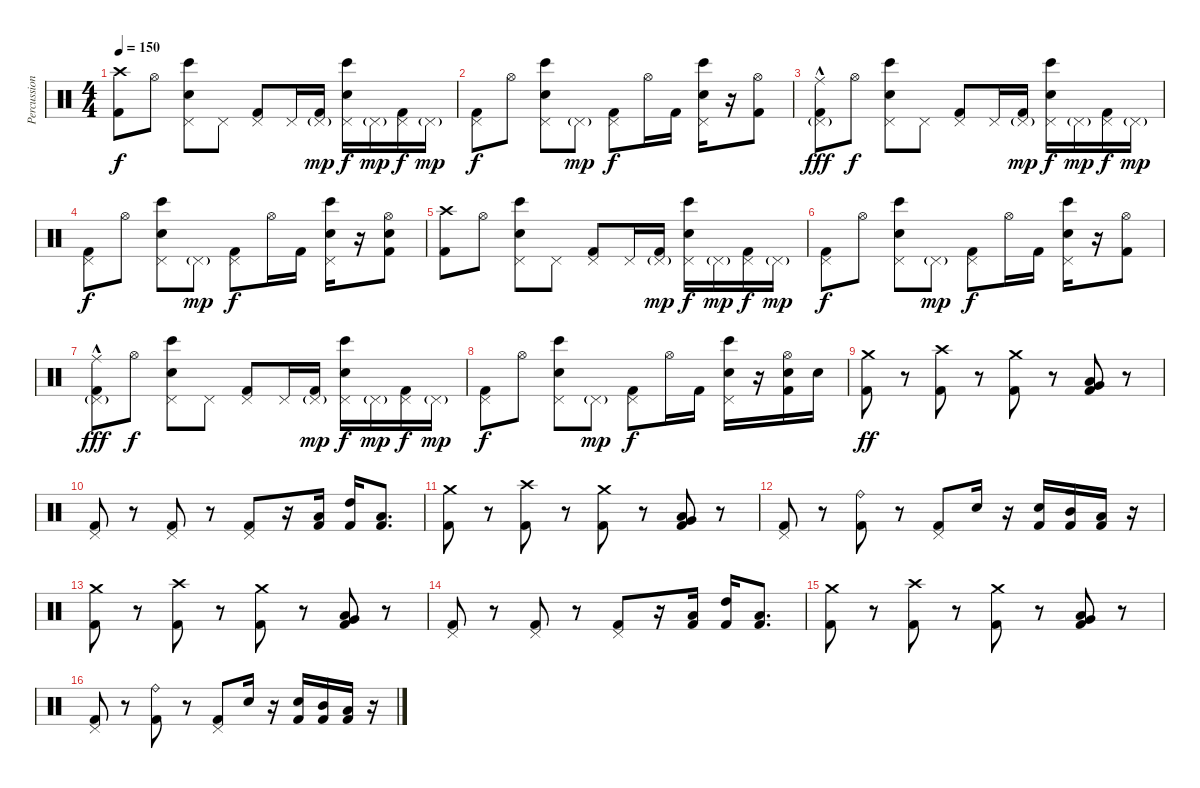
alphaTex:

\track ("Percussion" "Percussion") {instrument percussion}
\staff {score}
\articulation defaults
\ts (4 4)
\tempo 150
\clef neutral
\ks c
("Crash high (hit)" "Kick (hit) 2").8{dy f} "Hi-Hat (open)".8 ("Pedal Hi-Hat (hit)" "Electric Snare (hit)" "Bongo High (hit)").8 "Pedal Hi-Hat (hit)".8 ("Pedal Hi-Hat (hit)" "Kick (hit) 2").8 "Pedal Hi-Hat (hit)".16 ("Pedal Hi-Hat (hit)"{g} "Kick (hit) 2").16{dy mp} ("Pedal Hi-Hat (hit)" "Electric Snare (hit)" "Bongo High (hit)").16{dy f} "Pedal Hi-Hat (hit)"{g}.16{dy mp} ("Pedal Hi-Hat (hit)" "Kick (hit) 2").16{dy f} "Pedal Hi-Hat (hit)"{g}.16{dy mp} |
("Pedal Hi-Hat (hit)" "Kick (hit) 2").8{dy f} "Hi-Hat (open)".8 ("Pedal Hi-Hat (hit)" "Electric Snare (hit)" "Bongo High (hit)").8 "Pedal Hi-Hat (hit)"{g}.8{dy mp} ("Pedal Hi-Hat (hit)" "Kick (hit) 2").8{dy f} "Hi-Hat (open)".16 "Kick (hit) 2".16 ("Pedal Hi-Hat (hit)" "Electric Snare (hit)" "Bongo High (hit)").16 r.16 ("Hi-Hat (open)" "Kick (hit) 2").8 |
("Ride (middle)" "Pedal Hi-Hat (hit)"{g} "Kick (hit) 2"{hac}).8{dy fff} "Hi-Hat (open)".8{dy f} ("Pedal Hi-Hat (hit)" "Electric Snare (hit)" "Bongo High (hit)").8 "Pedal Hi-Hat (hit)".8 ("Pedal Hi-Hat (hit)" "Kick (hit) 2").8 "Pedal Hi-Hat (hit)".16 ("Pedal Hi-Hat (hit)"{g} "Kick (hit) 2").16{dy mp} ("Pedal Hi-Hat (hit)" "Electric Snare (hit)" "Bongo High (hit)").16{dy f} "Pedal Hi-Hat (hit)"{g}.16{dy mp} ("Pedal Hi-Hat (hit)" "Kick (hit) 2").16{dy f} "Pedal Hi-Hat (hit)"{g}.16{dy mp} |
("Pedal Hi-Hat (hit)" "Kick (hit) 2").8{dy f} "Hi-Hat (open)".8 ("Pedal Hi-Hat (hit)" "Electric Snare (hit)" "Bongo High (hit)").8 "Pedal Hi-Hat (hit)"{g}.8{dy mp} ("Pedal Hi-Hat (hit)" "Kick (hit) 2").8{dy f} "Hi-Hat (open)".16 "Kick (hit) 2".16 ("Pedal Hi-Hat (hit)" "Electric Snare (hit)" "Bongo High (hit)").16 r.16 ("Hi-Hat (open)" "Electric Snare (hit)" "Kick (hit) 2").8 |
("Crash high (hit)" "Kick (hit) 2").8 "Hi-Hat (open)".8 ("Pedal Hi-Hat (hit)" "Electric Snare (hit)" "Bongo High (hit)").8 "Pedal Hi-Hat (hit)".8 ("Pedal Hi-Hat (hit)" "Kick (hit) 2").8 "Pedal Hi-Hat (hit)".16 ("Pedal Hi-Hat (hit)"{g} "Kick (hit) 2").16{dy mp} ("Pedal Hi-Hat (hit)" "Electric Snare (hit)" "Bongo High (hit)").16{dy f} "Pedal Hi-Hat (hit)"{g}.16{dy mp} ("Pedal Hi-Hat (hit)" "Kick (hit) 2").16{dy f} "Pedal Hi-Hat (hit)"{g}.16{dy mp} |
("Pedal Hi-Hat (hit)" "Kick (hit) 2").8{dy f} "Hi-Hat (open)".8 ("Pedal Hi-Hat (hit)" "Electric Snare (hit)" "Bongo High (hit)").8 "Pedal Hi-Hat (hit)"{g}.8{dy mp} ("Pedal Hi-Hat (hit)" "Kick (hit) 2").8{dy f} "Hi-Hat (open)".16 "Kick (hit) 2".16 ("Pedal Hi-Hat (hit)" "Electric Snare (hit)" "Bongo High (hit)").16 r.16 ("Hi-Hat (open)" "Kick (hit) 2").8 |
("Ride (middle)" "Pedal Hi-Hat (hit)"{g} "Kick (hit) 2"{hac}).8{dy fff} "Hi-Hat (open)".8{dy f} ("Pedal Hi-Hat (hit)" "Electric Snare (hit)" "Bongo High (hit)").8 "Pedal Hi-Hat (hit)".8 ("Pedal Hi-Hat (hit)" "Kick (hit) 2").8 "Pedal Hi-Hat (hit)".16 ("Pedal Hi-Hat (hit)"{g} "Kick (hit) 2").16{dy mp} ("Pedal Hi-Hat (hit)" "Electric Snare (hit)" "Bongo High (hit)").16{dy f} "Pedal Hi-Hat (hit)"{g}.16{dy mp} ("Pedal Hi-Hat (hit)" "Kick (hit) 2").16{dy f} "Pedal Hi-Hat (hit)"{g}.16{dy mp} |
("Pedal Hi-Hat (hit)" "Kick (hit) 2").8{dy f} "Hi-Hat (open)".8 ("Pedal Hi-Hat (hit)" "Electric Snare (hit)" "Bongo High (hit)").8 "Pedal Hi-Hat (hit)"{g}.8{dy mp} ("Pedal Hi-Hat (hit)" "Kick (hit) 2").8{dy f} "Hi-Hat (open)".16 "Kick (hit) 2".16 ("Pedal Hi-Hat (hit)" "Electric Snare (hit)" "Bongo High (hit)").16 r.16 ("Hi-Hat (open)" "Kick (hit) 2" "Electric Snare (hit)").16 "Electric Snare (hit)".16 |
("Crash medium (hit)" "Kick (hit) 2").8{dy ff} r.8 ("Crash high (hit)" "Kick (hit) 2").8 r.8 ("Crash medium (hit)" "Kick (hit) 2").8 r.8 ("Very Low Tom (hit)" "Low Tom (hit)" "Kick (hit) 2").8{bd 60} r.8 |
("Pedal Hi-Hat (hit)" "Kick (hit) 2").8 r.8 ("Pedal Hi-Hat (hit)" "Kick (hit) 2").8 r.8 ("Pedal Hi-Hat (hit)" "Kick (hit) 2").8 r.16 ("Low Tom (hit)" "Kick (hit) 2").16 ("High Tom (hit)" "Kick (hit) 2").16 ("Low Tom (hit)" "Kick (hit) 2").8{d} |
("Crash medium (hit)" "Kick (hit) 2").8 r.8 ("Crash high (hit)" "Kick (hit) 2").8 r.8 ("Crash medium (hit)" "Kick (hit) 2").8 r.8 ("Very Low Tom (hit)" "Low Tom (hit)" "Kick (hit) 2").8{bd 60} r.8 |
("Pedal Hi-Hat (hit)" "Kick (hit) 2").8 r.8 ("Ride (bell)" "Kick (hit) 2").8 r.8 ("Pedal Hi-Hat (hit)" "Kick (hit) 2").8 "Electric Snare (hit)".16 r.16 ("Electric Snare (hit)" "Kick (hit) 2").16 ("Mid Tom (hit)" "Kick (hit) 2").16 ("Low Tom (hit)" "Kick (hit) 2").16 r.16 |
("Crash medium (hit)" "Kick (hit) 2").8 r.8 ("Crash high (hit)" "Kick (hit) 2").8 r.8 ("Crash medium (hit)" "Kick (hit) 2").8 r.8 ("Very Low Tom (hit)" "Low Tom (hit)" "Kick (hit) 2").8{bd 60} r.8 |
("Pedal Hi-Hat (hit)" "Kick (hit) 2").8 r.8 ("Pedal Hi-Hat (hit)" "Kick (hit) 2").8 r.8 ("Pedal Hi-Hat (hit)" "Kick (hit) 2").8 r.16 ("Low Tom (hit)" "Kick (hit) 2").16 ("High Tom (hit)" "Kick (hit) 2").16 ("Low Tom (hit)" "Kick (hit) 2").8{d} |
("Crash medium (hit)" "Kick (hit) 2").8 r.8 ("Crash high (hit)" "Kick (hit) 2").8 r.8 ("Crash medium (hit)" "Kick (hit) 2").8 r.8 ("Very Low Tom (hit)" "Low Tom (hit)" "Kick (hit) 2").8{bd 60} r.8 |
("Pedal Hi-Hat (hit)" "Kick (hit) 2").8 r.8 ("Ride (bell)" "Kick (hit) 2").8 r.8 ("Pedal Hi-Hat (hit)" "Kick (hit) 2").8 "Electric Snare (hit)".16 r.16 ("Electric Snare (hit)" "Kick (hit) 2").16 ("Mid Tom (hit)" "Kick (hit) 2").16 ("Low Tom (hit)" "Kick (hit) 2").16 r.16
